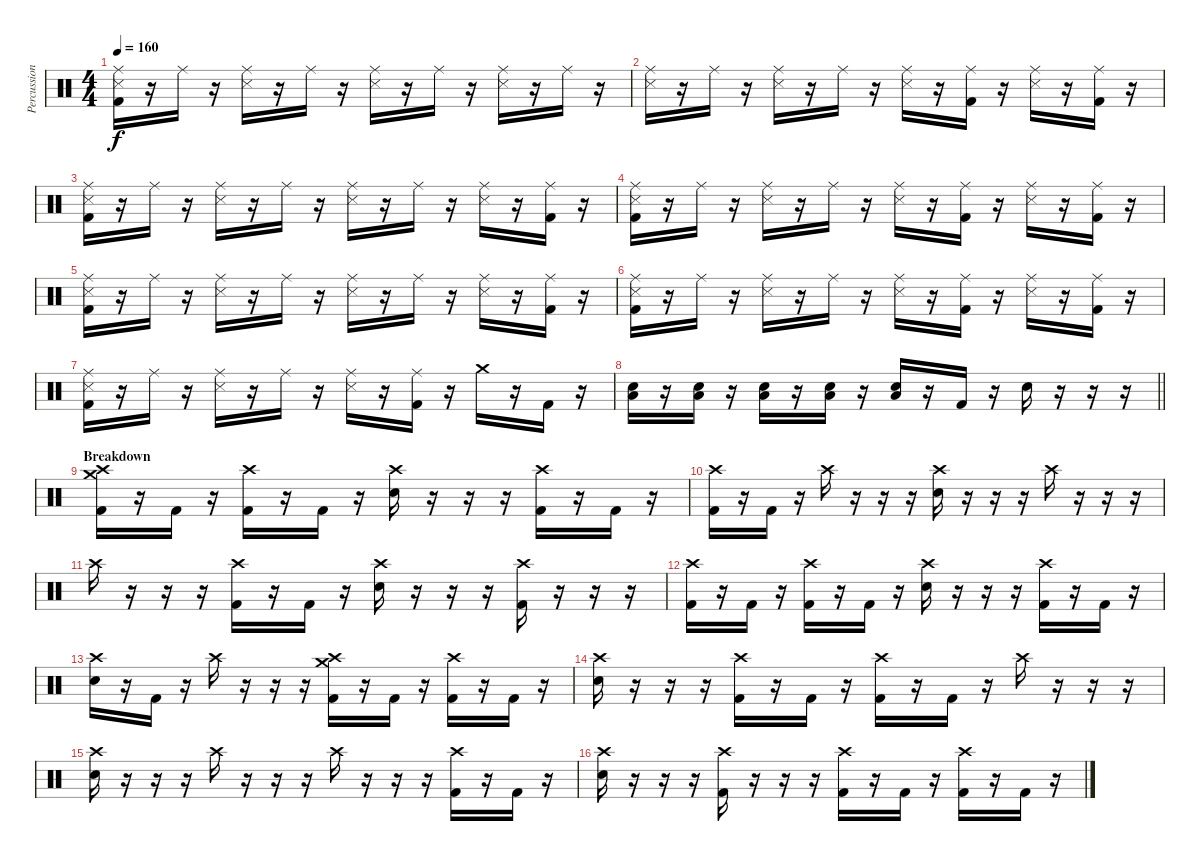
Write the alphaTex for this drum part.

\track ("Percussion" "Percussion") {instrument percussion}
\staff {score}
\articulation defaults
\ts (4 4)
\tempo 160
\clef neutral
\ks c
("Ride (middle)" "Snare (side stick) 3" "Kick (hit) 2").16{dy f} r.16 "Ride (middle)".16 r.16 ("Ride (middle)" "Snare (side stick) 3").16 r.16 "Ride (middle)".16 r.16 ("Ride (middle)" "Snare (side stick) 3").16 r.16 "Ride (middle)".16 r.16 ("Ride (middle)" "Snare (side stick) 3").16 r.16 "Ride (middle)".16 r.16 |
("Ride (middle)" "Snare (side stick) 3").16 r.16 "Ride (middle)".16 r.16 ("Ride (middle)" "Snare (side stick) 3").16 r.16 "Ride (middle)".16 r.16 ("Ride (middle)" "Snare (side stick) 3").16 r.16 ("Ride (middle)" "Kick (hit) 2").16 r.16 ("Ride (middle)" "Snare (side stick) 3").16 r.16 ("Ride (middle)" "Kick (hit) 2").16 r.16 |
("Ride (middle)" "Snare (side stick) 3" "Kick (hit) 2").16 r.16 "Ride (middle)".16 r.16 ("Ride (middle)" "Snare (side stick) 3").16 r.16 "Ride (middle)".16 r.16 ("Ride (middle)" "Snare (side stick) 3").16 r.16 "Ride (middle)".16 r.16 ("Ride (middle)" "Snare (side stick) 3").16 r.16 ("Ride (middle)" "Kick (hit) 2").16 r.16 |
("Ride (middle)" "Snare (side stick) 3" "Kick (hit) 2").16 r.16 "Ride (middle)".16 r.16 ("Ride (middle)" "Snare (side stick) 3").16 r.16 "Ride (middle)".16 r.16 ("Ride (middle)" "Snare (side stick) 3").16 r.16 ("Ride (middle)" "Kick (hit) 2").16 r.16 ("Ride (middle)" "Snare (side stick) 3").16 r.16 ("Ride (middle)" "Kick (hit) 2").16 r.16 |
("Ride (middle)" "Snare (side stick) 3" "Kick (hit) 2").16 r.16 "Ride (middle)".16 r.16 ("Ride (middle)" "Snare (side stick) 3").16 r.16 "Ride (middle)".16 r.16 ("Ride (middle)" "Snare (side stick) 3").16 r.16 "Ride (middle)".16 r.16 ("Ride (middle)" "Snare (side stick) 3").16 r.16 ("Ride (middle)" "Kick (hit) 2").16 r.16 |
("Ride (middle)" "Snare (side stick) 3" "Kick (hit) 2").16 r.16 "Ride (middle)".16 r.16 ("Ride (middle)" "Snare (side stick) 3").16 r.16 "Ride (middle)".16 r.16 ("Ride (middle)" "Snare (side stick) 3").16 r.16 ("Ride (middle)" "Kick (hit) 2").16 r.16 ("Ride (middle)" "Snare (side stick) 3").16 r.16 ("Ride (middle)" "Kick (hit) 2").16 r.16 |
("Ride (middle)" "Snare (side stick) 3" "Kick (hit) 2").16 r.16 "Ride (middle)".16 r.16 ("Ride (middle)" "Snare (side stick) 3").16 r.16 "Ride (middle)".16 r.16 ("Ride (middle)" "Snare (side stick) 3").16 r.16 ("Ride (middle)" "Kick (hit) 2").16 r.16 "Crash medium (hit)".16 r.16 "Kick (hit) 2".16 r.16 |
\barLineRight lightlight
("Snare (hit) 2" "Low Floor Tom (hit)").16 r.16 ("Snare (hit) 2" "Low Floor Tom (hit)").16 r.16 ("Snare (hit) 2" "Low Floor Tom (hit)").16 r.16 ("Snare (hit) 2" "Low Floor Tom (hit)").16 r.16 ("Snare (hit) 2" "Low Floor Tom (hit)").16 r.16 "Kick (hit) 2".16 r.16 "Snare (hit) 2".16 r.16 r.16 r.16 |
\section ("" "Breakdown")
("Crash medium (hit)" "Crash high (hit)" "Kick (hit) 2").16 r.16 "Kick (hit) 2".16 r.16 ("Crash high (hit)" "Kick (hit) 2").16 r.16 "Kick (hit) 2".16 r.16 ("Crash high (hit)" "Snare (hit) 2").16 r.16 r.16 r.16 ("Crash high (hit)" "Kick (hit) 2").16 r.16 "Kick (hit) 2".16 r.16 |
("Crash high (hit)" "Kick (hit) 2").16 r.16 "Kick (hit) 2".16 r.16 "Crash high (hit)".16 r.16 r.16 r.16 ("Crash high (hit)" "Snare (hit) 2").16 r.16 r.16 r.16 "Crash high (hit)".16 r.16 r.16 r.16 |
"Crash high (hit)".16 r.16 r.16 r.16 ("Crash high (hit)" "Kick (hit) 2").16 r.16 "Kick (hit) 2".16 r.16 ("Crash high (hit)" "Snare (hit) 2").16 r.16 r.16 r.16 ("Crash high (hit)" "Kick (hit) 2").16 r.16 r.16 r.16 |
("Crash high (hit)" "Kick (hit) 2").16 r.16 "Kick (hit) 2".16 r.16 ("Crash high (hit)" "Kick (hit) 2").16 r.16 "Kick (hit) 2".16 r.16 ("Crash high (hit)" "Snare (hit) 2").16 r.16 r.16 r.16 ("Crash high (hit)" "Kick (hit) 2").16 r.16 "Kick (hit) 2".16 r.16 |
("Crash high (hit)" "Snare (hit) 2").16 r.16 "Kick (hit) 2".16 r.16 "Crash high (hit)".16 r.16 r.16 r.16 ("Crash medium (hit)" "Crash high (hit)" "Kick (hit) 2").16 r.16 "Kick (hit) 2".16 r.16 ("Crash high (hit)" "Kick (hit) 2").16 r.16 "Kick (hit) 2".16 r.16 |
("Crash high (hit)" "Snare (hit) 2").16 r.16 r.16 r.16 ("Crash high (hit)" "Kick (hit) 2").16 r.16 "Kick (hit) 2".16 r.16 ("Crash high (hit)" "Kick (hit) 2").16 r.16 "Kick (hit) 2".16 r.16 "Crash high (hit)".16 r.16 r.16 r.16 |
("Crash high (hit)" "Snare (hit) 2").16 r.16 r.16 r.16 "Crash high (hit)".16 r.16 r.16 r.16 "Crash high (hit)".16 r.16 r.16 r.16 ("Crash high (hit)" "Kick (hit) 2").16 r.16 "Kick (hit) 2".16 r.16 |
("Crash high (hit)" "Snare (hit) 2").16 r.16 r.16 r.16 ("Crash high (hit)" "Kick (hit) 2").16 r.16 r.16 r.16 ("Crash high (hit)" "Kick (hit) 2").16 r.16 "Kick (hit) 2".16 r.16 ("Crash high (hit)" "Kick (hit) 2").16 r.16 "Kick (hit) 2".16 r.16
